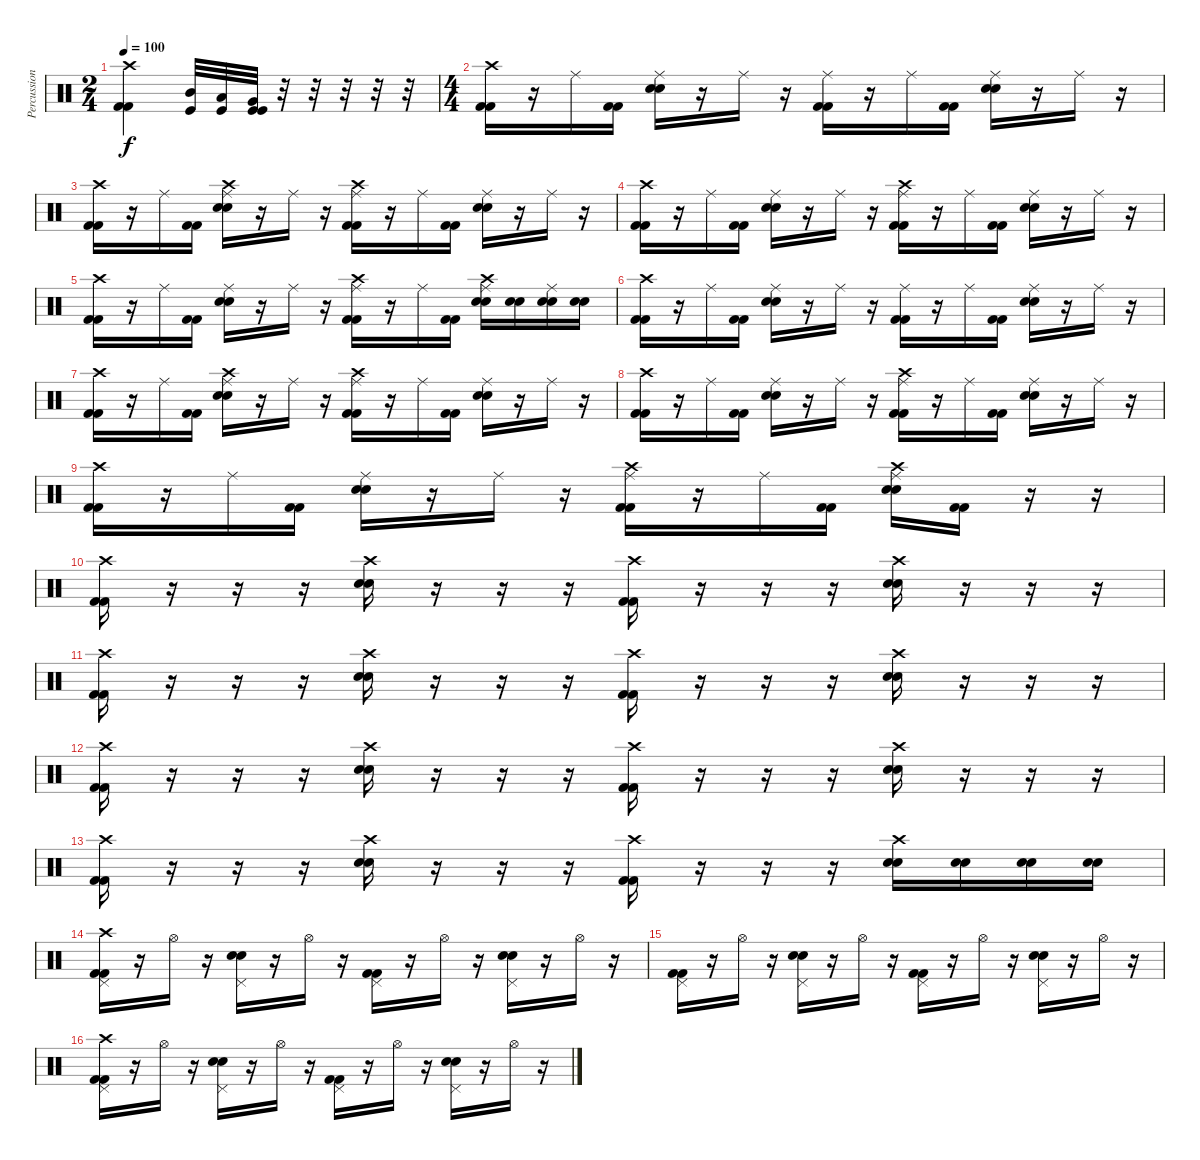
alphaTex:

\track ("Percussions" "Percussion") {instrument percussion}
\staff {score}
\articulation defaults
\ts (2 4)
\tempo 100
\clef neutral
\ks c
("Crash high (hit)" "Kick (hit) 2" "Kick (hit) 2").4{dy f} ("Mid Tom (hit)" "Kick (hit)").32 ("Low Tom (hit)" "Kick (hit)").32 ("Very Low Tom (hit)" "Kick (hit)" "Kick (hit)").32 r.32 r.32 r.32 r.32 r.32 |
\ts (4 4)
("Crash high (hit)" "Kick (hit) 2" "Kick (hit) 2").16 r.16 "Ride (middle)".16 ("Kick (hit) 2" "Kick (hit) 2").16 ("Ride (middle)" "Electric Snare (hit)" "Electric Snare (hit)").16 r.16 "Ride (middle)".16 r.16 ("Ride (middle)" "Kick (hit) 2" "Kick (hit) 2").16 r.16 "Ride (middle)".16 ("Kick (hit) 2" "Kick (hit) 2").16 ("Ride (middle)" "Electric Snare (hit)" "Electric Snare (hit)").16 r.16 "Ride (middle)".16 r.16 |
("Crash high (hit)" "Kick (hit) 2" "Kick (hit) 2").16 r.16 "Ride (middle)".16 ("Kick (hit) 2" "Kick (hit) 2").16 ("Crash high (hit)" "Ride (middle)" "Electric Snare (hit)" "Electric Snare (hit)").16 r.16 "Ride (middle)".16 r.16 ("Crash high (hit)" "Ride (middle)" "Kick (hit) 2" "Kick (hit) 2").16 r.16 "Ride (middle)".16 ("Kick (hit) 2" "Kick (hit) 2").16 ("Ride (middle)" "Electric Snare (hit)" "Electric Snare (hit)").16 r.16 "Ride (middle)".16 r.16 |
("Crash high (hit)" "Kick (hit) 2" "Kick (hit) 2").16 r.16 "Ride (middle)".16 ("Kick (hit) 2" "Kick (hit) 2").16 ("Ride (middle)" "Electric Snare (hit)" "Electric Snare (hit)").16 r.16 "Ride (middle)".16 r.16 ("Crash high (hit)" "Ride (middle)" "Kick (hit) 2" "Kick (hit) 2").16 r.16 "Ride (middle)".16 ("Kick (hit) 2" "Kick (hit) 2").16 ("Ride (middle)" "Electric Snare (hit)" "Electric Snare (hit)").16 r.16 "Ride (middle)".16 r.16 |
("Crash high (hit)" "Kick (hit) 2" "Kick (hit) 2").16 r.16 "Ride (middle)".16 ("Kick (hit) 2" "Kick (hit) 2").16 ("Ride (middle)" "Electric Snare (hit)" "Electric Snare (hit)").16 r.16 "Ride (middle)".16 r.16 ("Crash high (hit)" "Ride (middle)" "Kick (hit) 2" "Kick (hit) 2").16 r.16 "Ride (middle)".16 ("Kick (hit) 2" "Kick (hit) 2").16 ("Crash high (hit)" "Ride (middle)" "Electric Snare (hit)" "Electric Snare (hit)").16 ("Electric Snare (hit)" "Electric Snare (hit)").16 ("Ride (middle)" "Electric Snare (hit)" "Electric Snare (hit)").16 ("Electric Snare (hit)" "Snare (hit)").16 |
("Crash high (hit)" "Kick (hit) 2" "Kick (hit) 2").16 r.16 "Ride (middle)".16 ("Kick (hit) 2" "Kick (hit) 2").16 ("Ride (middle)" "Electric Snare (hit)" "Electric Snare (hit)").16 r.16 "Ride (middle)".16 r.16 ("Ride (middle)" "Kick (hit) 2" "Kick (hit) 2").16 r.16 "Ride (middle)".16 ("Kick (hit) 2" "Kick (hit) 2").16 ("Ride (middle)" "Electric Snare (hit)" "Electric Snare (hit)").16 r.16 "Ride (middle)".16 r.16 |
("Crash high (hit)" "Kick (hit) 2" "Kick (hit) 2").16 r.16 "Ride (middle)".16 ("Kick (hit) 2" "Kick (hit) 2").16 ("Crash high (hit)" "Ride (middle)" "Electric Snare (hit)" "Electric Snare (hit)").16 r.16 "Ride (middle)".16 r.16 ("Crash high (hit)" "Ride (middle)" "Kick (hit) 2" "Kick (hit) 2").16 r.16 "Ride (middle)".16 ("Kick (hit) 2" "Kick (hit) 2").16 ("Ride (middle)" "Electric Snare (hit)" "Electric Snare (hit)").16 r.16 "Ride (middle)".16 r.16 |
("Crash high (hit)" "Kick (hit) 2" "Kick (hit) 2").16 r.16 "Ride (middle)".16 ("Kick (hit) 2" "Kick (hit) 2").16 ("Ride (middle)" "Electric Snare (hit)" "Electric Snare (hit)").16 r.16 "Ride (middle)".16 r.16 ("Crash high (hit)" "Ride (middle)" "Kick (hit) 2" "Kick (hit) 2").16 r.16 "Ride (middle)".16 ("Kick (hit) 2" "Kick (hit) 2").16 ("Ride (middle)" "Electric Snare (hit)" "Electric Snare (hit)").16 r.16 "Ride (middle)".16 r.16 |
("Crash high (hit)" "Kick (hit) 2" "Kick (hit) 2").16 r.16 "Ride (middle)".16 ("Kick (hit) 2" "Kick (hit) 2").16 ("Ride (middle)" "Electric Snare (hit)" "Electric Snare (hit)").16 r.16 "Ride (middle)".16 r.16 ("Crash high (hit)" "Ride (middle)" "Kick (hit) 2" "Kick (hit) 2").16 r.16 "Ride (middle)".16 ("Kick (hit) 2" "Kick (hit) 2").16 ("Crash high (hit)" "Ride (middle)" "Electric Snare (hit)" "Electric Snare (hit)").16 ("Kick (hit) 2" "Kick (hit) 2").16 r.16 r.16 |
("Crash high (hit)" "Kick (hit) 2" "Kick (hit) 2").16 r.16 r.16 r.16 ("Crash high (hit)" "Electric Snare (hit)" "Electric Snare (hit)").16 r.16 r.16 r.16 ("Crash high (hit)" "Kick (hit) 2" "Kick (hit) 2").16 r.16 r.16 r.16 ("Crash high (hit)" "Electric Snare (hit)" "Electric Snare (hit)").16 r.16 r.16 r.16 |
("Crash high (hit)" "Kick (hit) 2" "Kick (hit) 2").16 r.16 r.16 r.16 ("Crash high (hit)" "Electric Snare (hit)" "Electric Snare (hit)").16 r.16 r.16 r.16 ("Crash high (hit)" "Kick (hit) 2" "Kick (hit) 2").16 r.16 r.16 r.16 ("Crash high (hit)" "Electric Snare (hit)" "Electric Snare (hit)").16 r.16 r.16 r.16 |
("Crash high (hit)" "Kick (hit) 2" "Kick (hit) 2").16 r.16 r.16 r.16 ("Crash high (hit)" "Electric Snare (hit)" "Electric Snare (hit)").16 r.16 r.16 r.16 ("Crash high (hit)" "Kick (hit) 2" "Kick (hit) 2").16 r.16 r.16 r.16 ("Crash high (hit)" "Electric Snare (hit)" "Electric Snare (hit)").16 r.16 r.16 r.16 |
("Crash high (hit)" "Kick (hit) 2" "Kick (hit) 2").16 r.16 r.16 r.16 ("Crash high (hit)" "Electric Snare (hit)" "Electric Snare (hit)").16 r.16 r.16 r.16 ("Crash high (hit)" "Kick (hit) 2" "Kick (hit) 2").16 r.16 r.16 r.16 ("Crash high (hit)" "Electric Snare (hit)" "Electric Snare (hit)").16 ("Electric Snare (hit)" "Electric Snare (hit)").16 ("Electric Snare (hit)" "Electric Snare (hit)").16 ("Electric Snare (hit)" "Electric Snare (hit)").16 |
("Crash high (hit)" "Pedal Hi-Hat (hit)" "Kick (hit) 2" "Kick (hit) 2").16 r.16 "Hi-Hat (open)".16 r.16 ("Pedal Hi-Hat (hit)" "Electric Snare (hit)" "Electric Snare (hit)").16 r.16 "Hi-Hat (open)".16 r.16 ("Pedal Hi-Hat (hit)" "Kick (hit) 2" "Kick (hit) 2").16 r.16 "Hi-Hat (open)".16 r.16 ("Pedal Hi-Hat (hit)" "Electric Snare (hit)" "Electric Snare (hit)").16 r.16 "Hi-Hat (open)".16 r.16 |
("Pedal Hi-Hat (hit)" "Kick (hit) 2" "Kick (hit) 2").16 r.16 "Hi-Hat (open)".16 r.16 ("Pedal Hi-Hat (hit)" "Electric Snare (hit)" "Electric Snare (hit)").16 r.16 "Hi-Hat (open)".16 r.16 ("Pedal Hi-Hat (hit)" "Kick (hit) 2" "Kick (hit) 2").16 r.16 "Hi-Hat (open)".16 r.16 ("Pedal Hi-Hat (hit)" "Electric Snare (hit)" "Electric Snare (hit)").16 r.16 "Hi-Hat (open)".16 r.16 |
("Crash high (hit)" "Pedal Hi-Hat (hit)" "Kick (hit) 2" "Kick (hit) 2").16 r.16 "Hi-Hat (open)".16 r.16 ("Pedal Hi-Hat (hit)" "Electric Snare (hit)" "Electric Snare (hit)").16 r.16 "Hi-Hat (open)".16 r.16 ("Pedal Hi-Hat (hit)" "Kick (hit) 2" "Kick (hit) 2").16 r.16 "Hi-Hat (open)".16 r.16 ("Pedal Hi-Hat (hit)" "Electric Snare (hit)" "Electric Snare (hit)").16 r.16 "Hi-Hat (open)".16 r.16
